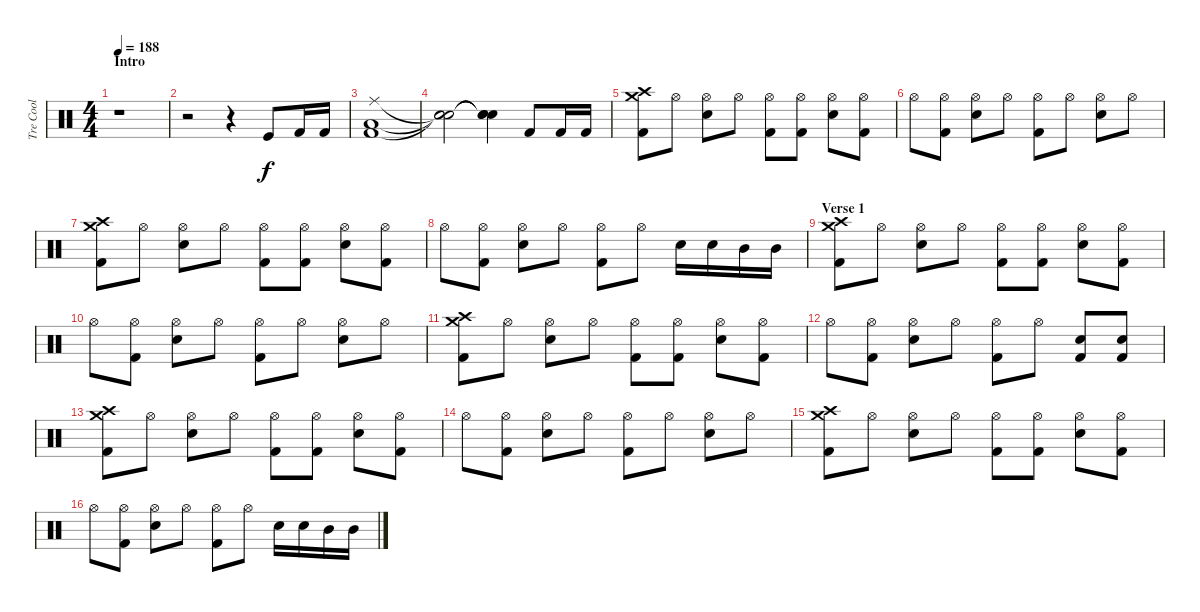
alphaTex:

\track ("Tre Cool" "Tre Cool") {instrument percussion}
\staff {score}
\articulation defaults
\ts (4 4)
\section ("" "Intro")
\tempo 188
\clef neutral
\ks c
r.1{dy f} |
r.2 r.4 "Kick (hit)".8 "Kick (hit) 2".16 "Kick (hit) 2".16 |
("Ride (middle)" "Low Floor Tom (hit)" "Kick (hit) 2").1 |
("Snare (hit)"{t} "Snare (hit)"{t} "Snare (hit)"{t}).2 ("Snare (hit)"{t} "Snare (hit)"{t} "Snare (hit)"{t}).4 "Kick (hit) 2".8 "Kick (hit) 2".16 "Kick (hit) 2".16 |
("Crash high (hit)" "Crash medium (hit)" "Kick (hit) 2").8 "Hi-Hat (open)".8 ("Hi-Hat (open)" "Electric Snare (hit)").8 "Hi-Hat (open)".8 ("Hi-Hat (open)" "Kick (hit) 2").8 ("Hi-Hat (open)" "Kick (hit) 2").8 ("Hi-Hat (open)" "Electric Snare (hit)").8 ("Hi-Hat (open)" "Kick (hit) 2").8 |
"Hi-Hat (open)".8 ("Hi-Hat (open)" "Kick (hit) 2").8 ("Hi-Hat (open)" "Electric Snare (hit)").8 "Hi-Hat (open)".8 ("Hi-Hat (open)" "Kick (hit) 2").8 "Hi-Hat (open)".8 ("Hi-Hat (open)" "Electric Snare (hit)").8 "Hi-Hat (open)".8 |
("Crash high (hit)" "Crash medium (hit)" "Kick (hit) 2").8 "Hi-Hat (open)".8 ("Hi-Hat (open)" "Electric Snare (hit)").8 "Hi-Hat (open)".8 ("Hi-Hat (open)" "Kick (hit) 2").8 ("Hi-Hat (open)" "Kick (hit) 2").8 ("Hi-Hat (open)" "Electric Snare (hit)").8 ("Hi-Hat (open)" "Kick (hit) 2").8 |
"Hi-Hat (open)".8 ("Hi-Hat (open)" "Kick (hit) 2").8 ("Hi-Hat (open)" "Electric Snare (hit)").8 "Hi-Hat (open)".8 ("Hi-Hat (open)" "Kick (hit) 2").8 "Hi-Hat (open)".8 "Electric Snare (hit)".16 "Electric Snare (hit)".16 "Mid Tom (hit)".16 "Mid Tom (hit)".16 |
\section ("" "Verse 1")
("Crash high (hit)" "Crash medium (hit)" "Kick (hit) 2").8 "Hi-Hat (open)".8 ("Hi-Hat (open)" "Electric Snare (hit)").8 "Hi-Hat (open)".8 ("Hi-Hat (open)" "Kick (hit) 2").8 ("Hi-Hat (open)" "Kick (hit) 2").8 ("Hi-Hat (open)" "Electric Snare (hit)").8 ("Hi-Hat (open)" "Kick (hit) 2").8 |
"Hi-Hat (open)".8 ("Hi-Hat (open)" "Kick (hit) 2").8 ("Hi-Hat (open)" "Electric Snare (hit)").8 "Hi-Hat (open)".8 ("Hi-Hat (open)" "Kick (hit) 2").8 "Hi-Hat (open)".8 ("Hi-Hat (open)" "Electric Snare (hit)").8 "Hi-Hat (open)".8 |
("Crash high (hit)" "Crash medium (hit)" "Kick (hit) 2").8 "Hi-Hat (open)".8 ("Hi-Hat (open)" "Electric Snare (hit)").8 "Hi-Hat (open)".8 ("Hi-Hat (open)" "Kick (hit) 2").8 ("Hi-Hat (open)" "Kick (hit) 2").8 ("Hi-Hat (open)" "Electric Snare (hit)").8 ("Hi-Hat (open)" "Kick (hit) 2").8 |
"Hi-Hat (open)".8 ("Hi-Hat (open)" "Kick (hit) 2").8 ("Hi-Hat (open)" "Electric Snare (hit)").8 "Hi-Hat (open)".8 ("Hi-Hat (open)" "Kick (hit) 2").8 "Hi-Hat (open)".8 ("Electric Snare (hit)" "Kick (hit) 2").8 ("Electric Snare (hit)" "Kick (hit) 2").8 |
("Crash high (hit)" "Crash medium (hit)" "Kick (hit) 2").8 "Hi-Hat (open)".8 ("Hi-Hat (open)" "Electric Snare (hit)").8 "Hi-Hat (open)".8 ("Hi-Hat (open)" "Kick (hit) 2").8 ("Hi-Hat (open)" "Kick (hit) 2").8 ("Hi-Hat (open)" "Electric Snare (hit)").8 ("Hi-Hat (open)" "Kick (hit) 2").8 |
"Hi-Hat (open)".8 ("Hi-Hat (open)" "Kick (hit) 2").8 ("Hi-Hat (open)" "Electric Snare (hit)").8 "Hi-Hat (open)".8 ("Hi-Hat (open)" "Kick (hit) 2").8 "Hi-Hat (open)".8 ("Hi-Hat (open)" "Electric Snare (hit)").8 "Hi-Hat (open)".8 |
("Crash high (hit)" "Crash medium (hit)" "Kick (hit) 2").8 "Hi-Hat (open)".8 ("Hi-Hat (open)" "Electric Snare (hit)").8 "Hi-Hat (open)".8 ("Hi-Hat (open)" "Kick (hit) 2").8 ("Hi-Hat (open)" "Kick (hit) 2").8 ("Hi-Hat (open)" "Electric Snare (hit)").8 ("Hi-Hat (open)" "Kick (hit) 2").8 |
"Hi-Hat (open)".8 ("Hi-Hat (open)" "Kick (hit) 2").8 ("Hi-Hat (open)" "Electric Snare (hit)").8 "Hi-Hat (open)".8 ("Hi-Hat (open)" "Kick (hit) 2").8 "Hi-Hat (open)".8 "Electric Snare (hit)".16 "Electric Snare (hit)".16 "Mid Tom (hit)".16 "Mid Tom (hit)".16
